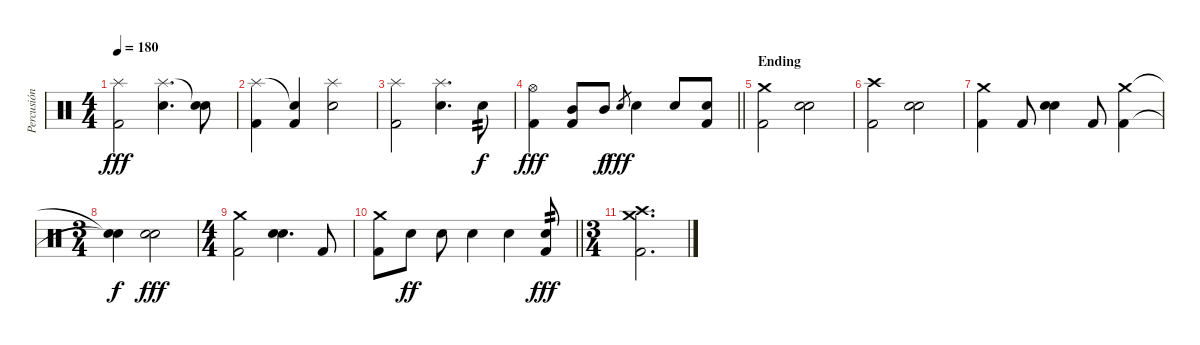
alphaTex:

\track ("Percusión" "Percusión") {instrument percussion}
\staff {score}
\articulation defaults
\ts (4 4)
\tempo 180
\clef neutral
\ks c
("Splash (hit)" "Kick (hit) 2").2{dy fff} ("Splash (hit)" "Electric Snare (hit)").4{d} ("Snare (hit)"{t} "Electric Snare (hit)").8 |
("Splash (hit)" "Kick (hit) 2").4 ("Snare (hit)"{t} "Kick (hit) 2").4 ("Splash (hit)" "Electric Snare (hit)").2 |
("Splash (hit)" "Kick (hit) 2").2 ("Splash (hit)" "Electric Snare (hit)").4{d} "Electric Snare (hit)".8{tp 2 dy f} |
\barLineRight lightlight
("Hi-Hat (open)" "Kick (hit) 2").4{dy fff} ("Mid Tom (hit)" "Kick (hit) 2").8 "Mid Tom (hit)".8{dy f} "Electric Snare (hit)".8{gr dy fff} "Electric Snare (hit)".4 "Electric Snare (hit)".8 ("Electric Snare (hit)" "Kick (hit) 2").8 |
\section ("" "Ending")
("Crash medium (hit)" "Kick (hit) 2").2 ("Electric Snare (hit)" "Snare (hit) 2").2 |
("Crash high (hit)" "Kick (hit) 2").2 ("Electric Snare (hit)" "Snare (hit) 2").2 |
("Crash medium (hit)" "Kick (hit) 2").4 "Kick (hit) 2".8 ("Electric Snare (hit)" "Snare (hit) 2").4 "Kick (hit) 2".8 ("Crash medium (hit)" "Kick (hit) 2").4 |
\ts (3 4)
("Snare (hit)"{t} "Snare (hit)"{t}).4{dy f} ("Electric Snare (hit)" "Snare (hit) 2").2{dy fff} |
\ts (4 4)
("Crash medium (hit)" "Kick (hit) 2").2 ("Electric Snare (hit)" "Snare (hit) 2").4{d} "Kick (hit) 2".8 |
\barLineRight lightlight
("Crash medium (hit)" "Kick (hit) 2").8 "Electric Snare (hit)".8{dy ff} "Electric Snare (hit)".8 "Electric Snare (hit)".4 "Electric Snare (hit)".4 ("Electric Snare (hit)" "Kick (hit) 2").8{tp 2 dy fff} |
\ts (3 4)
("Crash medium (hit)" "Crash high (hit)" "Kick (hit) 2").2{d}
